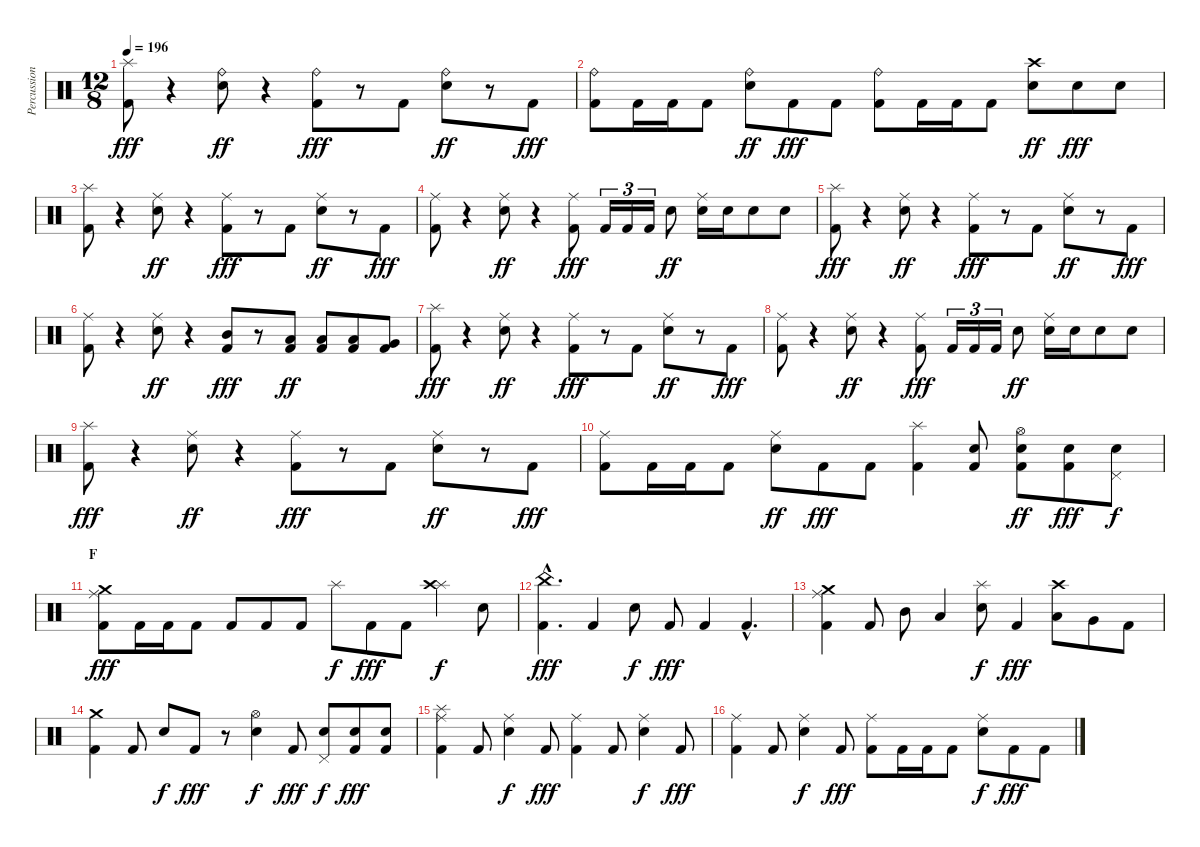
\track ("Percussion" "Percussion") {instrument percussion}
\staff {score}
\articulation defaults
\ts (12 8)
\tempo 196
\clef neutral
\ks c
("Splash (hit)" "Kick (hit) 2").8{dy fff} r.4 ("Ride (bell)" "Electric Snare (hit)").8{dy ff} r.4 ("Ride (bell)" "Kick (hit) 2").8{dy fff} r.8 "Kick (hit) 2".8 ("Ride (bell)" "Electric Snare (hit)").8{dy ff} r.8 "Kick (hit) 2".8{dy fff} |
("Ride (bell)" "Kick (hit) 2").8 "Kick (hit) 2".16 "Kick (hit) 2".16 "Kick (hit) 2".8 ("Ride (bell)" "Electric Snare (hit)").8{dy ff} "Kick (hit) 2".8{dy fff} "Kick (hit) 2".8 ("Ride (bell)" "Kick (hit) 2").8 "Kick (hit) 2".16 "Kick (hit) 2".16 "Kick (hit) 2".8 ("Crash high (hit)" "Electric Snare (hit)").8{dy ff} "Electric Snare (hit)".8{dy fff} "Electric Snare (hit)".8 |
("Splash (hit)" "Kick (hit) 2").8 r.4 ("Ride (middle)" "Electric Snare (hit)").8{dy ff} r.4 ("Ride (middle)" "Kick (hit) 2").8{dy fff} r.8 "Kick (hit) 2".8 ("Ride (middle)" "Electric Snare (hit)").8{dy ff} r.8 "Kick (hit) 2".8{dy fff} |
("Ride (middle)" "Kick (hit) 2").8 r.4 ("Ride (middle)" "Electric Snare (hit)").8{dy ff} r.4 ("Ride (middle)" "Kick (hit) 2").8{dy fff} "Kick (hit) 2".16{tu (3 2)} "Kick (hit) 2".16{tu (3 2)} "Kick (hit) 2".16{tu (3 2)} "Electric Snare (hit)".8{dy ff} ("Ride (middle)" "Electric Snare (hit)").16 "Electric Snare (hit)".16 "Electric Snare (hit)".8 "Electric Snare (hit)".8 |
("Splash (hit)" "Kick (hit) 2").8{dy fff} r.4 ("Ride (middle)" "Electric Snare (hit)").8{dy ff} r.4 ("Ride (middle)" "Kick (hit) 2").8{dy fff} r.8 "Kick (hit) 2".8 ("Ride (middle)" "Electric Snare (hit)").8{dy ff} r.8 "Kick (hit) 2".8{dy fff} |
("Ride (middle)" "Kick (hit) 2").8 r.4 ("Ride (middle)" "Electric Snare (hit)").8{dy ff} r.4 ("Mid Tom (hit)" "Kick (hit) 2").8{dy fff} r.8 ("Low Tom (hit)" "Kick (hit) 2").8{dy ff} ("Low Tom (hit)" "Kick (hit) 2").8 ("Low Tom (hit)" "Kick (hit) 2").8 ("Very Low Tom (hit)" "Kick (hit) 2").8 |
("Splash (hit)" "Kick (hit) 2").8{dy fff} r.4 ("Ride (middle)" "Electric Snare (hit)").8{dy ff} r.4 ("Ride (middle)" "Kick (hit) 2").8{dy fff} r.8 "Kick (hit) 2".8 ("Ride (middle)" "Electric Snare (hit)").8{dy ff} r.8 "Kick (hit) 2".8{dy fff} |
("Ride (middle)" "Kick (hit) 2").8 r.4 ("Ride (middle)" "Electric Snare (hit)").8{dy ff} r.4 ("Ride (middle)" "Kick (hit) 2").8{dy fff} "Kick (hit) 2".16{tu (3 2)} "Kick (hit) 2".16{tu (3 2)} "Kick (hit) 2".16{tu (3 2)} "Electric Snare (hit)".8{dy ff} ("Ride (middle)" "Electric Snare (hit)").16 "Electric Snare (hit)".16 "Electric Snare (hit)".8 "Electric Snare (hit)".8 |
("Splash (hit)" "Kick (hit) 2").8{dy fff} r.4 ("Ride (middle)" "Electric Snare (hit)").8{dy ff} r.4 ("Ride (middle)" "Kick (hit) 2").8{dy fff} r.8 "Kick (hit) 2".8 ("Ride (middle)" "Electric Snare (hit)").8{dy ff} r.8 "Kick (hit) 2".8{dy fff} |
("Ride (middle)" "Kick (hit) 2").8 "Kick (hit) 2".16 "Kick (hit) 2".16 "Kick (hit) 2".8 ("Ride (middle)" "Electric Snare (hit)").8{dy ff} "Kick (hit) 2".8{dy fff} "Kick (hit) 2".8 ("Splash (hit)" "Kick (hit) 2").4 ("Electric Snare (hit)" "Kick (hit) 2").8 ("Hi-Hat (open)" "Electric Snare (hit)" "Kick (hit) 2").8{dy ff} ("Electric Snare (hit)" "Kick (hit) 2").8{dy fff} ("Pedal Hi-Hat (hit)" "Electric Snare (hit)").8{dy f} |
\section ("" "F")
("Ride (middle)" "Crash medium (hit)" "Kick (hit) 2").8{dy fff volume 12} "Kick (hit) 2".16 "Kick (hit) 2".16 "Kick (hit) 2".8 "Kick (hit) 2".8 "Kick (hit) 2".8 "Kick (hit) 2".8 "Splash (hit)".8{dy f} "Kick (hit) 2".8{dy fff} "Kick (hit) 2".8 ("Splash (hit)" "Crash high (hit)").4{dy f} "Electric Snare (hit)".8 |
("China (hit)"{hac} "Kick (hit) 2"{hac}).4{d dy fff} "Kick (hit) 2".4 "Electric Snare (hit)".8{dy f} "Kick (hit) 2".8{dy fff} "Kick (hit) 2".4 "Kick (hit) 2"{hac}.4{d} |
("Ride (middle)" "Crash medium (hit)" "Kick (hit) 2").4{volume 12} "Kick (hit) 2".8 "Mid Tom (hit)".8 "Low Tom (hit)".4 ("Splash (hit)" "Electric Snare (hit)").8{dy f} "Kick (hit) 2".4{dy fff} ("Crash high (hit)" "Low Tom (hit)").8 "Very Low Tom (hit)".8 "Kick (hit) 2".8 |
("Crash medium (hit)" "Kick (hit) 2").4 "Kick (hit) 2".8 "Electric Snare (hit)".8{dy f} "Kick (hit) 2".8{dy fff} r.8 ("Hi-Hat (open)" "Electric Snare (hit)").4{dy f} "Kick (hit) 2".8{dy fff} ("Pedal Hi-Hat (hit)" "Electric Snare (hit)").8{dy f} ("Electric Snare (hit)" "Kick (hit) 2").8{dy fff} ("Electric Snare (hit)" "Kick (hit) 2").8 |
("Splash (hit)" "Ride (middle)" "Kick (hit) 2").4 "Kick (hit) 2".8 ("Ride (middle)" "Electric Snare (hit)").4{dy f} "Kick (hit) 2".8{dy fff} ("Ride (middle)" "Kick (hit) 2").4 "Kick (hit) 2".8 ("Ride (middle)" "Electric Snare (hit)").4{dy f} "Kick (hit) 2".8{dy fff} |
("Ride (middle)" "Kick (hit) 2").4 "Kick (hit) 2".8 ("Ride (middle)" "Electric Snare (hit)").4{dy f} "Kick (hit) 2".8{dy fff} ("Ride (middle)" "Kick (hit) 2").8 "Kick (hit) 2".16 "Kick (hit) 2".16 "Kick (hit) 2".8 ("Ride (middle)" "Electric Snare (hit)").8{dy f} "Kick (hit) 2".8{dy fff} "Kick (hit) 2".8
